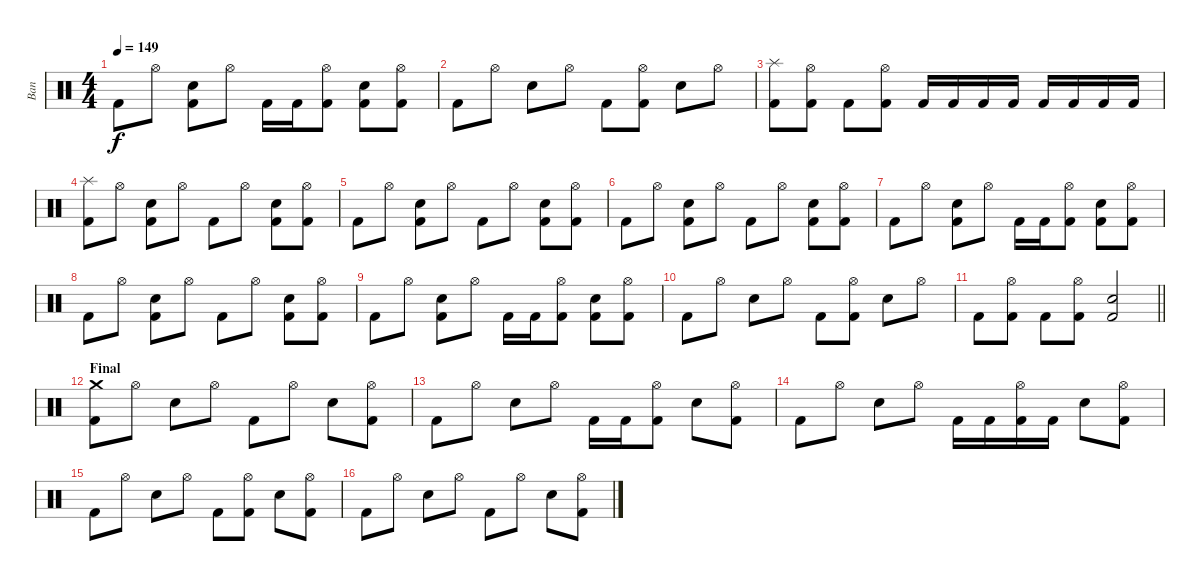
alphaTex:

\track ("Ban" "Ban") {instrument percussion}
\staff {score}
\articulation defaults
\ts (4 4)
\tempo 149
\clef neutral
\ks c "Kick (hit) 2".8{dy f} "Hi-Hat (open)".8
("Electric Snare (hit)" "Kick (hit) 2").8 "Hi-Hat (open)".8 "Kick (hit) 2".16 "Kick (hit) 2".16 ("Hi-Hat (open)" "Kick (hit) 2").8 ("Electric Snare (hit)" "Kick (hit) 2").8 ("Hi-Hat (open)" "Kick (hit) 2").8 |
"Kick (hit) 2".8 "Hi-Hat (open)".8 "Electric Snare (hit)".8 "Hi-Hat (open)".8 "Kick (hit) 2".8 ("Hi-Hat (open)" "Kick (hit) 2").8 "Electric Snare (hit)".8 "Hi-Hat (open)".8 |
("Splash (hit)" "Kick (hit) 2").8 ("Hi-Hat (open)" "Kick (hit) 2").8 "Kick (hit) 2".8 ("Hi-Hat (open)" "Kick (hit) 2").8 "Kick (hit) 2".16 "Kick (hit) 2".16 "Kick (hit) 2".16 "Kick (hit) 2".16 "Kick (hit) 2".16 "Kick (hit) 2".16 "Kick (hit) 2".16 "Kick (hit) 2".16 |
("Splash (hit)" "Kick (hit) 2").8 "Hi-Hat (open)".8 ("Electric Snare (hit)" "Kick (hit) 2").8 "Hi-Hat (open)".8 "Kick (hit) 2".8 "Hi-Hat (open)".8 ("Electric Snare (hit)" "Kick (hit) 2").8 ("Hi-Hat (open)" "Kick (hit) 2").8 |
"Kick (hit) 2".8 "Hi-Hat (open)".8 ("Electric Snare (hit)" "Kick (hit) 2").8 "Hi-Hat (open)".8 "Kick (hit) 2".8 "Hi-Hat (open)".8 ("Electric Snare (hit)" "Kick (hit) 2").8 ("Hi-Hat (open)" "Kick (hit) 2").8 |
"Kick (hit) 2".8 "Hi-Hat (open)".8 ("Electric Snare (hit)" "Kick (hit) 2").8 "Hi-Hat (open)".8 "Kick (hit) 2".8 "Hi-Hat (open)".8 ("Electric Snare (hit)" "Kick (hit) 2").8 ("Hi-Hat (open)" "Kick (hit) 2").8 |
"Kick (hit) 2".8 "Hi-Hat (open)".8 ("Electric Snare (hit)" "Kick (hit) 2").8 "Hi-Hat (open)".8 "Kick (hit) 2".16 "Kick (hit) 2".16 ("Hi-Hat (open)" "Kick (hit) 2").8 ("Electric Snare (hit)" "Kick (hit) 2").8 ("Hi-Hat (open)" "Kick (hit) 2").8 |
"Kick (hit) 2".8 "Hi-Hat (open)".8 ("Electric Snare (hit)" "Kick (hit) 2").8 "Hi-Hat (open)".8 "Kick (hit) 2".8 "Hi-Hat (open)".8 ("Electric Snare (hit)" "Kick (hit) 2").8 ("Hi-Hat (open)" "Kick (hit) 2").8 |
"Kick (hit) 2".8 "Hi-Hat (open)".8 ("Electric Snare (hit)" "Kick (hit) 2").8 "Hi-Hat (open)".8 "Kick (hit) 2".16 "Kick (hit) 2".16 ("Hi-Hat (open)" "Kick (hit) 2").8 ("Electric Snare (hit)" "Kick (hit) 2").8 ("Hi-Hat (open)" "Kick (hit) 2").8 |
"Kick (hit) 2".8 "Hi-Hat (open)".8 "Electric Snare (hit)".8 "Hi-Hat (open)".8 "Kick (hit) 2".8 ("Hi-Hat (open)" "Kick (hit) 2").8 "Electric Snare (hit)".8 "Hi-Hat (open)".8 |
\barLineRight lightlight "Kick (hit) 2".8
("Hi-Hat (open)" "Kick (hit) 2").8 "Kick (hit) 2".8 ("Hi-Hat (open)" "Kick (hit) 2").8 ("Electric Snare (hit)" "Kick (hit) 2").2 |
\section ("" "Final")
("Crash medium (hit)" "Kick (hit) 2").8 "Hi-Hat (open)".8 "Electric Snare (hit)".8 "Hi-Hat (open)".8 "Kick (hit) 2".8 "Hi-Hat (open)".8 "Electric Snare (hit)".8 ("Hi-Hat (open)" "Kick (hit) 2").8 |
"Kick (hit) 2".8 "Hi-Hat (open)".8 "Electric Snare (hit)".8 "Hi-Hat (open)".8 "Kick (hit) 2".16 "Kick (hit) 2".16 ("Hi-Hat (open)" "Kick (hit) 2").8 "Electric Snare (hit)".8 ("Hi-Hat (open)" "Kick (hit) 2").8 |
"Kick (hit) 2".8 "Hi-Hat (open)".8 "Electric Snare (hit)".8 "Hi-Hat (open)".8 "Kick (hit) 2".16 "Kick (hit) 2".16 ("Hi-Hat (open)" "Kick (hit) 2").16 "Kick (hit) 2".16 "Electric Snare (hit)".8 ("Hi-Hat (open)" "Kick (hit) 2").8 |
"Kick (hit) 2".8 "Hi-Hat (open)".8 "Electric Snare (hit)".8 "Hi-Hat (open)".8 "Kick (hit) 2".8 ("Hi-Hat (open)" "Kick (hit) 2").8 "Electric Snare (hit)".8 ("Hi-Hat (open)" "Kick (hit) 2").8 |
"Kick (hit) 2".8 "Hi-Hat (open)".8 "Electric Snare (hit)".8 "Hi-Hat (open)".8 "Kick (hit) 2".8 "Hi-Hat (open)".8 "Electric Snare (hit)".8 ("Hi-Hat (open)" "Kick (hit) 2").8
